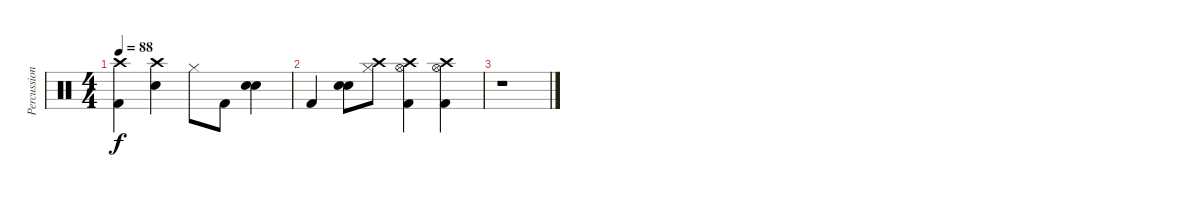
\track ("Percussion" "Percussion") {instrument percussion}
\staff {score}
\articulation defaults
\ts (4 4)
\tempo 88
\clef neutral
\ks c
("Crash high (hit)" "Kick (hit) 2").4{dy f} ("Crash high (hit)" "Snare (hit) 2").4 "Hi-Hat (closed)".8 "Kick (hit) 2".8 ("Snare (hit) 2" "Snare (hit) 2").4 |
"Kick (hit) 2".4 ("Snare (hit) 2" "Snare (hit) 2").8 ("Crash high (hit)" "Hi-Hat (closed)").8 ("Crash high (hit)" "Hi-Hat (open)" "Kick (hit) 2").4 ("Crash high (hit)" "Hi-Hat (open)" "Kick (hit) 2").4 |
r.1
